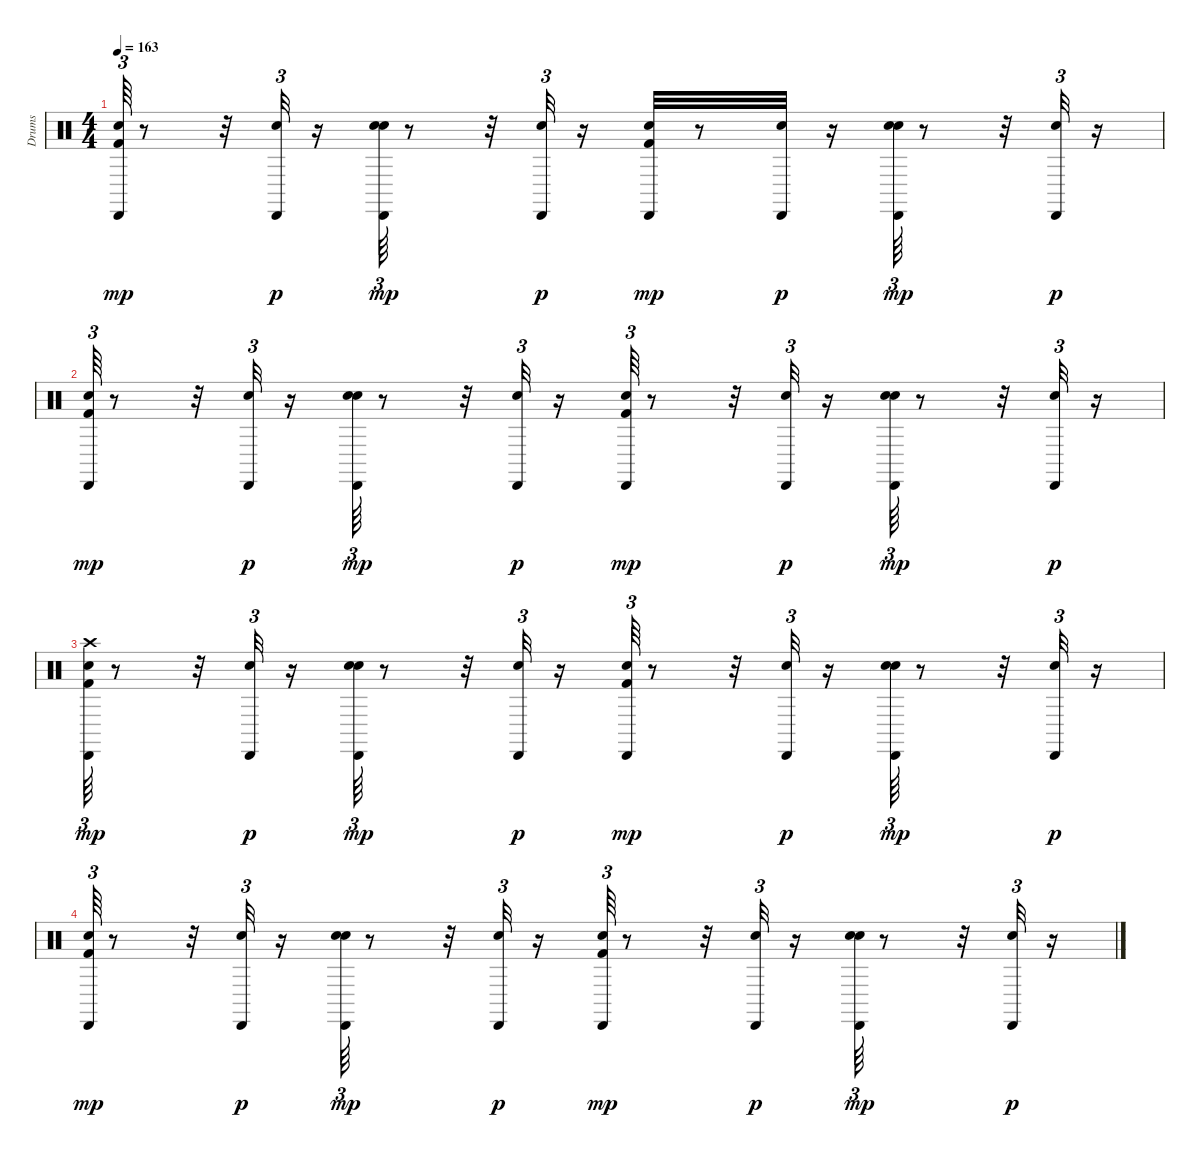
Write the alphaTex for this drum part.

\track ("Drums               " "Drums     ") {instrument percussion}
\staff {score}
\articulation defaults
\ts (4 4)
\tempo 163
\clef neutral
\ks c
("Kick (hit) 2" "Snare (hit) 2" "Cabasa (hit)").64{tu (3 2) dy mp} r.8 r.32 ("Snare (hit) 2" "Cabasa (hit)").32{tu (3 2) dy p} r.16 ("Snare (hit) 2" "Hand Clap (hit)" "Cabasa (hit)").64{tu (3 2) dy mp} r.8 r.32 ("Snare (hit) 2" "Cabasa (hit)").32{tu (3 2) dy p} r.16 ("Kick (hit) 2" "Snare (hit) 2" "Cabasa (hit)").32{dy mp} r.8 ("Snare (hit) 2" "Cabasa (hit)").32{dy p} r.16 ("Snare (hit) 2" "Hand Clap (hit)" "Cabasa (hit)").64{tu (3 2) dy mp} r.8 r.32 ("Snare (hit) 2" "Cabasa (hit)").32{tu (3 2) dy p} r.16 |
("Kick (hit) 2" "Snare (hit) 2" "Cabasa (hit)").64{tu (3 2) dy mp} r.8 r.32 ("Snare (hit) 2" "Cabasa (hit)").32{tu (3 2) dy p} r.16 ("Snare (hit) 2" "Hand Clap (hit)" "Cabasa (hit)").64{tu (3 2) dy mp} r.8 r.32 ("Snare (hit) 2" "Cabasa (hit)").32{tu (3 2) dy p} r.16 ("Kick (hit) 2" "Snare (hit) 2" "Cabasa (hit)").64{tu (3 2) dy mp} r.8 r.32 ("Snare (hit) 2" "Cabasa (hit)").32{tu (3 2) dy p} r.16 ("Snare (hit) 2" "Hand Clap (hit)" "Cabasa (hit)").64{tu (3 2) dy mp} r.8 r.32 ("Snare (hit) 2" "Cabasa (hit)").32{tu (3 2) dy p} r.16 |
("Kick (hit) 2" "Snare (hit) 2" "Crash high (hit)" "Cabasa (hit)").64{tu (3 2) dy mp} r.8 r.32 ("Snare (hit) 2" "Cabasa (hit)").32{tu (3 2) dy p} r.16 ("Snare (hit) 2" "Hand Clap (hit)" "Cabasa (hit)").64{tu (3 2) dy mp} r.8 r.32 ("Snare (hit) 2" "Cabasa (hit)").32{tu (3 2) dy p} r.16 ("Kick (hit) 2" "Snare (hit) 2" "Cabasa (hit)").64{tu (3 2) dy mp} r.8 r.32 ("Snare (hit) 2" "Cabasa (hit)").32{tu (3 2) dy p} r.16 ("Snare (hit) 2" "Hand Clap (hit)" "Cabasa (hit)").64{tu (3 2) dy mp} r.8 r.32 ("Snare (hit) 2" "Cabasa (hit)").32{tu (3 2) dy p} r.16 |
("Kick (hit) 2" "Snare (hit) 2" "Cabasa (hit)").64{tu (3 2) dy mp} r.8 r.32 ("Snare (hit) 2" "Cabasa (hit)").32{tu (3 2) dy p} r.16 ("Snare (hit) 2" "Hand Clap (hit)" "Cabasa (hit)").64{tu (3 2) dy mp} r.8 r.32 ("Snare (hit) 2" "Cabasa (hit)").32{tu (3 2) dy p} r.16 ("Kick (hit) 2" "Snare (hit) 2" "Cabasa (hit)").64{tu (3 2) dy mp} r.8 r.32 ("Snare (hit) 2" "Cabasa (hit)").32{tu (3 2) dy p} r.16 ("Snare (hit) 2" "Hand Clap (hit)" "Cabasa (hit)").64{tu (3 2) dy mp} r.8 r.32 ("Snare (hit) 2" "Cabasa (hit)").32{tu (3 2) dy p} r.16
